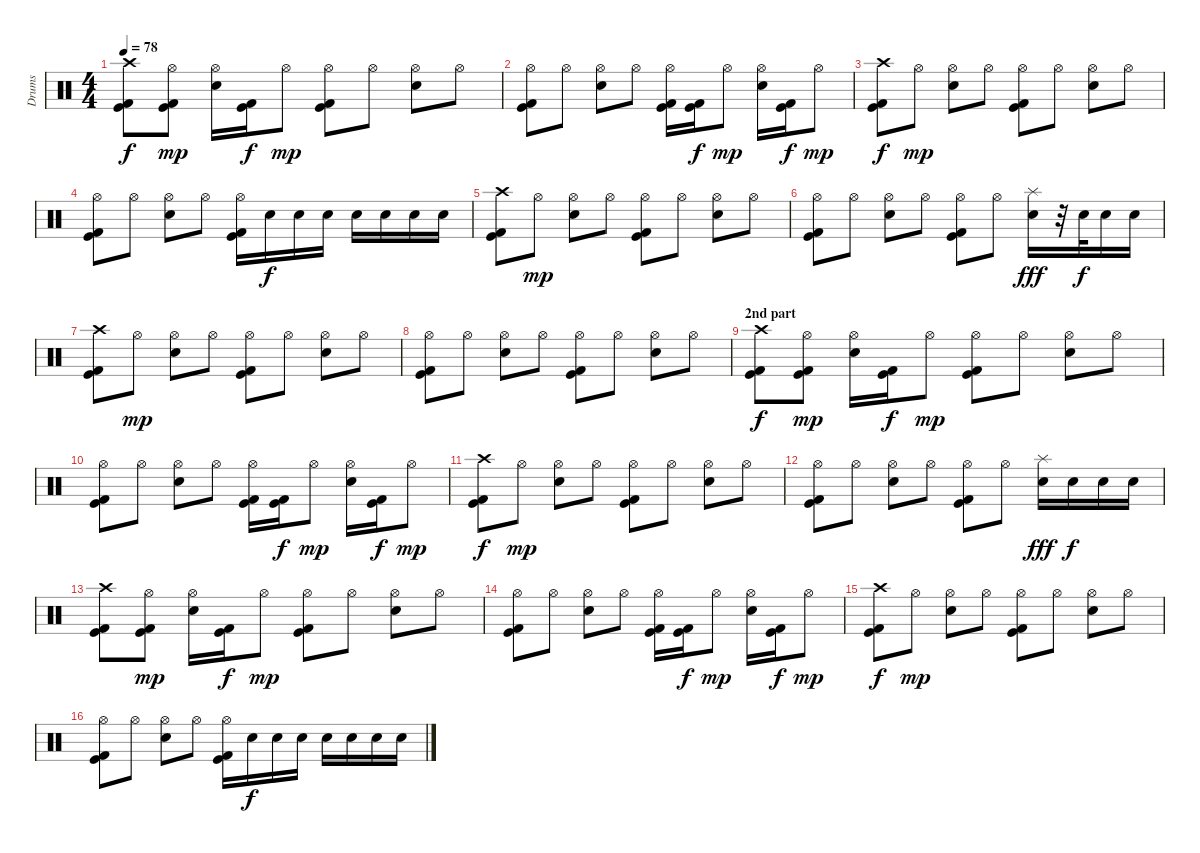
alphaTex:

\track ("Drums" "Drums") {instrument percussion}
\staff {score}
\articulation defaults
\ts (4 4)
\tempo 78
\clef neutral
\ks c
("Crash high (hit)" "Kick (hit)" "Kick (hit) 2").8{dy f} ("Hi-Hat (open)" "Kick (hit)" "Kick (hit) 2").8{dy mp} ("Hi-Hat (open)" "Electric Snare (hit)").16 ("Kick (hit)" "Kick (hit) 2").16{dy f} "Hi-Hat (open)".8{dy mp} ("Hi-Hat (open)" "Kick (hit)" "Kick (hit) 2").8 "Hi-Hat (open)".8 ("Hi-Hat (open)" "Electric Snare (hit)").8 "Hi-Hat (open)".8 |
("Hi-Hat (open)" "Kick (hit)" "Kick (hit) 2").8 "Hi-Hat (open)".8 ("Hi-Hat (open)" "Electric Snare (hit)").8 "Hi-Hat (open)".8 ("Hi-Hat (open)" "Kick (hit)" "Kick (hit) 2").16 ("Kick (hit)" "Kick (hit) 2").16{dy f} "Hi-Hat (open)".8{dy mp} ("Hi-Hat (open)" "Electric Snare (hit)").16 ("Kick (hit)" "Kick (hit) 2").16{dy f} "Hi-Hat (open)".8{dy mp} |
("Crash high (hit)" "Kick (hit)" "Kick (hit) 2").8{dy f} "Hi-Hat (open)".8{dy mp} ("Hi-Hat (open)" "Electric Snare (hit)").8 "Hi-Hat (open)".8 ("Hi-Hat (open)" "Kick (hit)" "Kick (hit) 2").8 "Hi-Hat (open)".8 ("Hi-Hat (open)" "Electric Snare (hit)").8 "Hi-Hat (open)".8 |
("Hi-Hat (open)" "Kick (hit)" "Kick (hit) 2").8 "Hi-Hat (open)".8 ("Hi-Hat (open)" "Electric Snare (hit)").8 "Hi-Hat (open)".8 ("Hi-Hat (open)" "Kick (hit)" "Kick (hit) 2").16 "Electric Snare (hit)".16{dy f} "Electric Snare (hit)".16 "Electric Snare (hit)".16 "Electric Snare (hit)".16 "Electric Snare (hit)".16 "Electric Snare (hit)".16 "Electric Snare (hit)".16 |
("Crash high (hit)" "Kick (hit)" "Kick (hit) 2").8 "Hi-Hat (open)".8{dy mp} ("Hi-Hat (open)" "Electric Snare (hit)").8 "Hi-Hat (open)".8 ("Hi-Hat (open)" "Kick (hit)" "Kick (hit) 2").8 "Hi-Hat (open)".8 ("Hi-Hat (open)" "Electric Snare (hit)").8 "Hi-Hat (open)".8 |
("Hi-Hat (open)" "Kick (hit)" "Kick (hit) 2").8 "Hi-Hat (open)".8 ("Hi-Hat (open)" "Electric Snare (hit)").8 "Hi-Hat (open)".8 ("Hi-Hat (open)" "Kick (hit)" "Kick (hit) 2").8 "Hi-Hat (open)".8 ("Splash (hit)" "Electric Snare (hit)").16{dy fff} r.32 "Electric Snare (hit)".32{dy f} "Electric Snare (hit)".16 "Electric Snare (hit)".16 |
("Crash high (hit)" "Kick (hit)" "Kick (hit) 2").8 "Hi-Hat (open)".8{dy mp} ("Hi-Hat (open)" "Electric Snare (hit)").8 "Hi-Hat (open)".8 ("Hi-Hat (open)" "Kick (hit)" "Kick (hit) 2").8 "Hi-Hat (open)".8 ("Hi-Hat (open)" "Electric Snare (hit)").8 "Hi-Hat (open)".8 |
("Hi-Hat (open)" "Kick (hit)" "Kick (hit) 2").8 "Hi-Hat (open)".8 ("Hi-Hat (open)" "Electric Snare (hit)").8 "Hi-Hat (open)".8 ("Hi-Hat (open)" "Kick (hit)" "Kick (hit) 2").8 "Hi-Hat (open)".8 ("Hi-Hat (open)" "Electric Snare (hit)").8 "Hi-Hat (open)".8 |
\section ("" "2nd part")
("Crash high (hit)" "Kick (hit)" "Kick (hit) 2").8{dy f} ("Hi-Hat (open)" "Kick (hit)" "Kick (hit) 2").8{dy mp} ("Hi-Hat (open)" "Electric Snare (hit)").16 ("Kick (hit)" "Kick (hit) 2").16{dy f} "Hi-Hat (open)".8{dy mp} ("Hi-Hat (open)" "Kick (hit)" "Kick (hit) 2").8 "Hi-Hat (open)".8 ("Hi-Hat (open)" "Electric Snare (hit)").8 "Hi-Hat (open)".8 |
("Hi-Hat (open)" "Kick (hit)" "Kick (hit) 2").8 "Hi-Hat (open)".8 ("Hi-Hat (open)" "Electric Snare (hit)").8 "Hi-Hat (open)".8 ("Hi-Hat (open)" "Kick (hit)" "Kick (hit) 2").16 ("Kick (hit)" "Kick (hit) 2").16{dy f} "Hi-Hat (open)".8{dy mp} ("Hi-Hat (open)" "Electric Snare (hit)").16 ("Kick (hit)" "Kick (hit) 2").16{dy f} "Hi-Hat (open)".8{dy mp} |
("Crash high (hit)" "Kick (hit)" "Kick (hit) 2").8{dy f} "Hi-Hat (open)".8{dy mp} ("Hi-Hat (open)" "Electric Snare (hit)").8 "Hi-Hat (open)".8 ("Hi-Hat (open)" "Kick (hit)" "Kick (hit) 2").8 "Hi-Hat (open)".8 ("Hi-Hat (open)" "Electric Snare (hit)").8 "Hi-Hat (open)".8 |
("Hi-Hat (open)" "Kick (hit)" "Kick (hit) 2").8 "Hi-Hat (open)".8 ("Hi-Hat (open)" "Electric Snare (hit)").8 "Hi-Hat (open)".8 ("Hi-Hat (open)" "Kick (hit)" "Kick (hit) 2").8 "Hi-Hat (open)".8 ("Splash (hit)" "Electric Snare (hit)").16{dy fff} "Electric Snare (hit)".16{dy f} "Electric Snare (hit)".16 "Electric Snare (hit)".16 |
("Crash high (hit)" "Kick (hit)" "Kick (hit) 2").8 ("Hi-Hat (open)" "Kick (hit)" "Kick (hit) 2").8{dy mp} ("Hi-Hat (open)" "Electric Snare (hit)").16 ("Kick (hit)" "Kick (hit) 2").16{dy f} "Hi-Hat (open)".8{dy mp} ("Hi-Hat (open)" "Kick (hit)" "Kick (hit) 2").8 "Hi-Hat (open)".8 ("Hi-Hat (open)" "Electric Snare (hit)").8 "Hi-Hat (open)".8 |
("Hi-Hat (open)" "Kick (hit)" "Kick (hit) 2").8 "Hi-Hat (open)".8 ("Hi-Hat (open)" "Electric Snare (hit)").8 "Hi-Hat (open)".8 ("Hi-Hat (open)" "Kick (hit)" "Kick (hit) 2").16 ("Kick (hit)" "Kick (hit) 2").16{dy f} "Hi-Hat (open)".8{dy mp} ("Hi-Hat (open)" "Electric Snare (hit)").16 ("Kick (hit)" "Kick (hit) 2").16{dy f} "Hi-Hat (open)".8{dy mp} |
("Crash high (hit)" "Kick (hit)" "Kick (hit) 2").8{dy f} "Hi-Hat (open)".8{dy mp} ("Hi-Hat (open)" "Electric Snare (hit)").8 "Hi-Hat (open)".8 ("Hi-Hat (open)" "Kick (hit)" "Kick (hit) 2").8 "Hi-Hat (open)".8 ("Hi-Hat (open)" "Electric Snare (hit)").8 "Hi-Hat (open)".8 |
("Hi-Hat (open)" "Kick (hit)" "Kick (hit) 2").8 "Hi-Hat (open)".8 ("Hi-Hat (open)" "Electric Snare (hit)").8 "Hi-Hat (open)".8 ("Hi-Hat (open)" "Kick (hit)" "Kick (hit) 2").16 "Electric Snare (hit)".16{dy f} "Electric Snare (hit)".16 "Electric Snare (hit)".16 "Electric Snare (hit)".16 "Electric Snare (hit)".16 "Electric Snare (hit)".16 "Electric Snare (hit)".16
